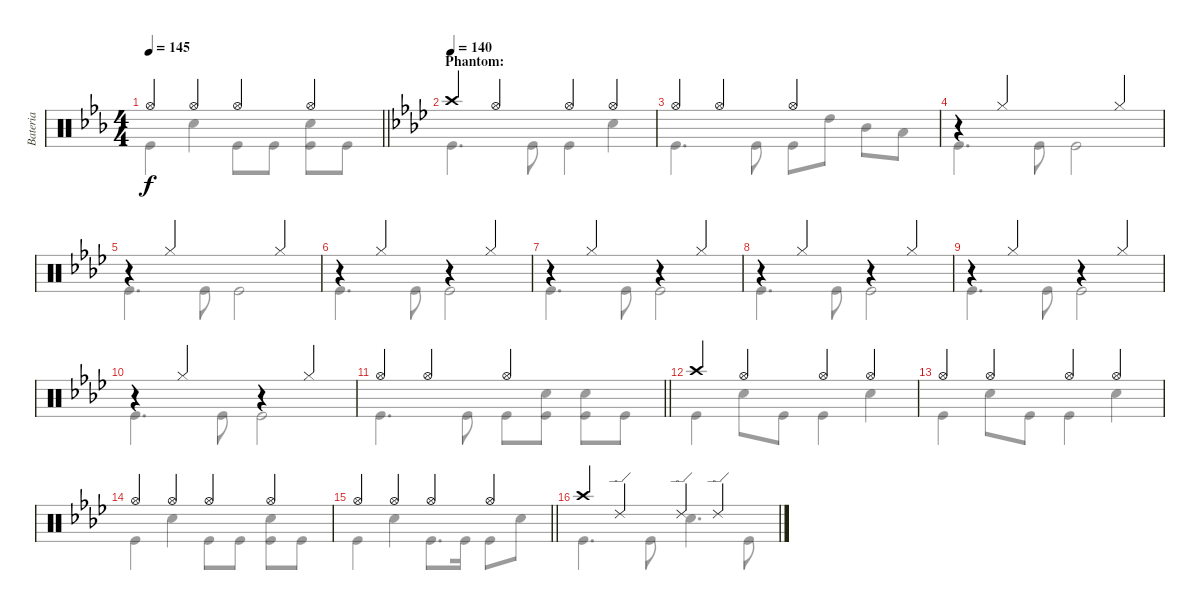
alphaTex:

\track ("Bateria" "Bateria") {instrument percussion}
\staff {score}
\articulation defaults
\voice
\ts (4 4)
\tempo 145
\clef neutral
\barLineRight lightlight
\ks cminor "Hi-Hat (open)".4{dy f} "Hi-Hat (open)".4 "Hi-Hat (open)".4 "Hi-Hat (open)".4
|
\section ("" "Phantom:")
\tempo 140
\ks fminor "Crash high (hit)".4 "Hi-Hat (open)".4 "Hi-Hat (open)".4 "Hi-Hat (open)".4
|
"Hi-Hat (open)".4 "Hi-Hat (open)".4 "Hi-Hat (open)".2 |
r.4 "Hi-Hat (closed)".2 "Hi-Hat (closed)".4 |
r.4 "Hi-Hat (closed)".2 "Hi-Hat (closed)".4 |
r.4 "Hi-Hat (closed)".4 r.4 "Hi-Hat (closed)".4 |
r.4 "Hi-Hat (closed)".4 r.4 "Hi-Hat (closed)".4 |
r.4 "Hi-Hat (closed)".4 r.4 "Hi-Hat (closed)".4 |
r.4 "Hi-Hat (closed)".4 r.4 "Hi-Hat (closed)".4 |
r.4 "Hi-Hat (closed)".4 r.4 "Hi-Hat (closed)".4 |
\barLineRight lightlight "Hi-Hat (open)".4 "Hi-Hat (open)".4 "Hi-Hat (open)".2
|
"Crash high (hit)".4 "Hi-Hat (open)".4 "Hi-Hat (open)".4 "Hi-Hat (open)".4 |
"Hi-Hat (open)".4 "Hi-Hat (open)".4 "Hi-Hat (open)".4 "Hi-Hat (open)".4 |
"Hi-Hat (open)".4 "Hi-Hat (open)".4 "Hi-Hat (open)".4 "Hi-Hat (open)".4 |
\barLineRight lightlight "Hi-Hat (open)".4 "Hi-Hat (open)".4 "Hi-Hat (open)".4 "Hi-Hat (open)".4
|
"Crash high (hit)".4 "Ride (edge) 2".4 "Ride (edge) 2".4 "Ride (edge) 2".4
\voice
\clef neutral
\ottava regular
\simile none
\barLineRight lightlight
\ks cminor "Kick (hit)".4{dy f} "Snare (hit) 2".4 "Kick (hit)".8 "Kick (hit)".8
("Snare (hit) 2" "Kick (hit)").8 "Kick (hit)".8 |
\ks fminor "Kick (hit)".4{d} "Kick (hit)".8 "Kick (hit)".4 "Snare (hit) 2".4
|
"Kick (hit)".4{d} "Kick (hit)".8 "Kick (hit)".8 "High Tom (hit)".8 "Mid Tom (hit)".8 "Low Tom (hit)".8 |
"Kick (hit)".4{d} "Kick (hit)".8 "Kick (hit)".2 |
"Kick (hit)".4{d} "Kick (hit)".8 "Kick (hit)".2 |
"Kick (hit)".4{d} "Kick (hit)".8 "Kick (hit)".2 |
"Kick (hit)".4{d} "Kick (hit)".8 "Kick (hit)".2 |
"Kick (hit)".4{d} "Kick (hit)".8 "Kick (hit)".2 |
"Kick (hit)".4{d} "Kick (hit)".8 "Kick (hit)".2 |
"Kick (hit)".4{d} "Kick (hit)".8 "Kick (hit)".2 |
\barLineRight lightlight "Kick (hit)".4{d} "Kick (hit)".8 "Kick (hit)".8
("Kick (hit)" "Snare (hit) 2").8 ("Kick (hit)" "Snare (hit) 2").8 "Kick (hit)".8 |
"Kick (hit)".4 "Snare (hit) 2".8 "Kick (hit)".8 "Kick (hit)".4 "Snare (hit) 2".4 |
"Kick (hit)".4 "Snare (hit) 2".8 "Kick (hit)".8 "Kick (hit)".4 "Snare (hit) 2".4 |
"Kick (hit)".4 "Snare (hit) 2".4 "Kick (hit)".8 "Kick (hit)".8 ("Kick (hit)" "Snare (hit) 2").8 "Kick (hit)".8 |
\barLineRight lightlight "Kick (hit)".4 "Snare (hit) 2".4 "Kick (hit)".8{d} "Kick (hit)".16 "Kick (hit)".8 "Snare (hit) 2".8
|
"Kick (hit)".4{d} "Kick (hit)".8 "Snare (hit) 2".4{d} "Kick (hit)".8
